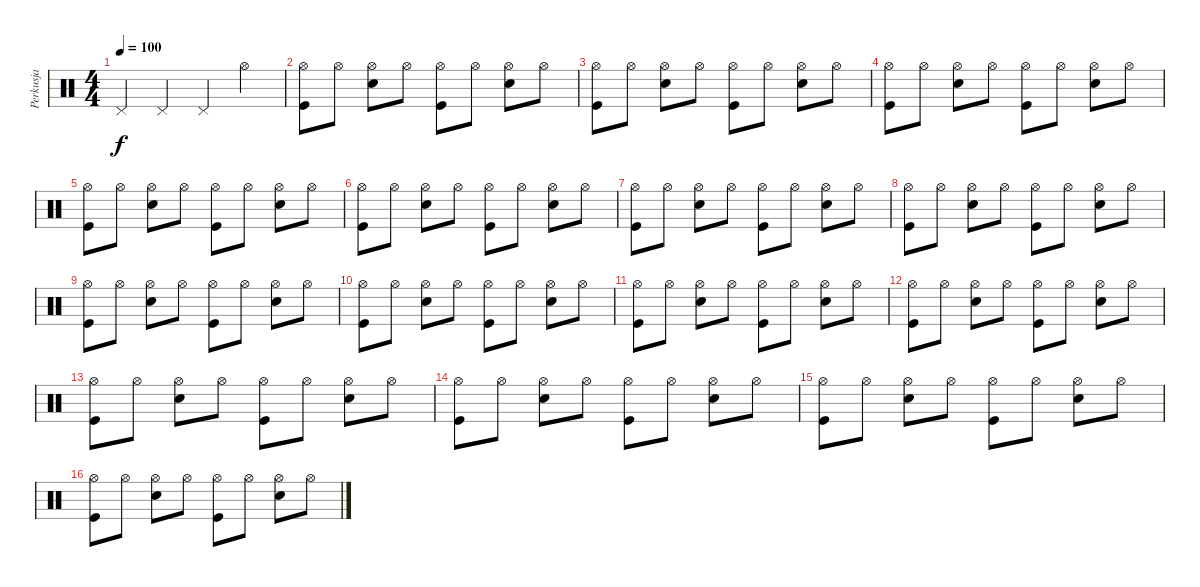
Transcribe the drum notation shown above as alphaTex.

\track ("Perkusja" "Perkusja") {instrument percussion}
\staff {score}
\articulation defaults
\ts (4 4)
\tempo 100
\clef neutral
\ks c "Pedal Hi-Hat (hit)".4{dy f} "Pedal Hi-Hat (hit)".4 "Pedal Hi-Hat (hit)".4 "Hi-Hat (open)".4
|
("Hi-Hat (open)" "Kick (hit)").8 "Hi-Hat (open)".8 ("Hi-Hat (open)" "Metronome (bell)").8 "Hi-Hat (open)".8 ("Hi-Hat (open)" "Kick (hit)").8 "Hi-Hat (open)".8 ("Hi-Hat (open)" "Metronome (bell)").8 "Hi-Hat (open)".8 |
("Hi-Hat (open)" "Kick (hit)").8 "Hi-Hat (open)".8 ("Hi-Hat (open)" "Metronome (bell)").8 "Hi-Hat (open)".8 ("Hi-Hat (open)" "Kick (hit)").8 "Hi-Hat (open)".8 ("Hi-Hat (open)" "Metronome (bell)").8 "Hi-Hat (open)".8 |
("Hi-Hat (open)" "Kick (hit)").8 "Hi-Hat (open)".8 ("Hi-Hat (open)" "Metronome (bell)").8 "Hi-Hat (open)".8 ("Hi-Hat (open)" "Kick (hit)").8 "Hi-Hat (open)".8 ("Hi-Hat (open)" "Metronome (bell)").8 "Hi-Hat (open)".8 |
("Hi-Hat (open)" "Kick (hit)").8 "Hi-Hat (open)".8 ("Hi-Hat (open)" "Metronome (bell)").8 "Hi-Hat (open)".8 ("Hi-Hat (open)" "Kick (hit)").8 "Hi-Hat (open)".8 ("Hi-Hat (open)" "Metronome (bell)").8 "Hi-Hat (open)".8 |
("Hi-Hat (open)" "Kick (hit)").8 "Hi-Hat (open)".8 ("Hi-Hat (open)" "Metronome (bell)").8 "Hi-Hat (open)".8 ("Hi-Hat (open)" "Kick (hit)").8 "Hi-Hat (open)".8 ("Hi-Hat (open)" "Metronome (bell)").8 "Hi-Hat (open)".8 |
("Hi-Hat (open)" "Kick (hit)").8 "Hi-Hat (open)".8 ("Hi-Hat (open)" "Metronome (bell)").8 "Hi-Hat (open)".8 ("Hi-Hat (open)" "Kick (hit)").8 "Hi-Hat (open)".8 ("Hi-Hat (open)" "Metronome (bell)").8 "Hi-Hat (open)".8 |
("Hi-Hat (open)" "Kick (hit)").8 "Hi-Hat (open)".8 ("Hi-Hat (open)" "Metronome (bell)").8 "Hi-Hat (open)".8 ("Hi-Hat (open)" "Kick (hit)").8 "Hi-Hat (open)".8 ("Hi-Hat (open)" "Metronome (bell)").8 "Hi-Hat (open)".8 |
("Hi-Hat (open)" "Kick (hit)").8 "Hi-Hat (open)".8 ("Hi-Hat (open)" "Metronome (bell)").8 "Hi-Hat (open)".8 ("Hi-Hat (open)" "Kick (hit)").8 "Hi-Hat (open)".8 ("Hi-Hat (open)" "Metronome (bell)").8 "Hi-Hat (open)".8 |
("Hi-Hat (open)" "Kick (hit)").8 "Hi-Hat (open)".8 ("Hi-Hat (open)" "Metronome (bell)").8 "Hi-Hat (open)".8 ("Hi-Hat (open)" "Kick (hit)").8 "Hi-Hat (open)".8 ("Hi-Hat (open)" "Metronome (bell)").8 "Hi-Hat (open)".8 |
("Hi-Hat (open)" "Kick (hit)").8 "Hi-Hat (open)".8 ("Hi-Hat (open)" "Metronome (bell)").8 "Hi-Hat (open)".8 ("Hi-Hat (open)" "Kick (hit)").8 "Hi-Hat (open)".8 ("Hi-Hat (open)" "Metronome (bell)").8 "Hi-Hat (open)".8 |
("Hi-Hat (open)" "Kick (hit)").8 "Hi-Hat (open)".8 ("Hi-Hat (open)" "Metronome (bell)").8 "Hi-Hat (open)".8 ("Hi-Hat (open)" "Kick (hit)").8 "Hi-Hat (open)".8 ("Hi-Hat (open)" "Metronome (bell)").8 "Hi-Hat (open)".8 |
("Hi-Hat (open)" "Kick (hit)").8 "Hi-Hat (open)".8 ("Hi-Hat (open)" "Metronome (bell)").8 "Hi-Hat (open)".8 ("Hi-Hat (open)" "Kick (hit)").8 "Hi-Hat (open)".8 ("Hi-Hat (open)" "Metronome (bell)").8 "Hi-Hat (open)".8 |
("Hi-Hat (open)" "Kick (hit)").8 "Hi-Hat (open)".8 ("Hi-Hat (open)" "Metronome (bell)").8 "Hi-Hat (open)".8 ("Hi-Hat (open)" "Kick (hit)").8 "Hi-Hat (open)".8 ("Hi-Hat (open)" "Metronome (bell)").8 "Hi-Hat (open)".8 |
("Hi-Hat (open)" "Kick (hit)").8 "Hi-Hat (open)".8 ("Hi-Hat (open)" "Metronome (bell)").8 "Hi-Hat (open)".8 ("Hi-Hat (open)" "Kick (hit)").8 "Hi-Hat (open)".8 ("Hi-Hat (open)" "Metronome (bell)").8 "Hi-Hat (open)".8 |
("Hi-Hat (open)" "Kick (hit)").8 "Hi-Hat (open)".8 ("Hi-Hat (open)" "Metronome (bell)").8 "Hi-Hat (open)".8 ("Hi-Hat (open)" "Kick (hit)").8 "Hi-Hat (open)".8 ("Hi-Hat (open)" "Metronome (bell)").8 "Hi-Hat (open)".8
